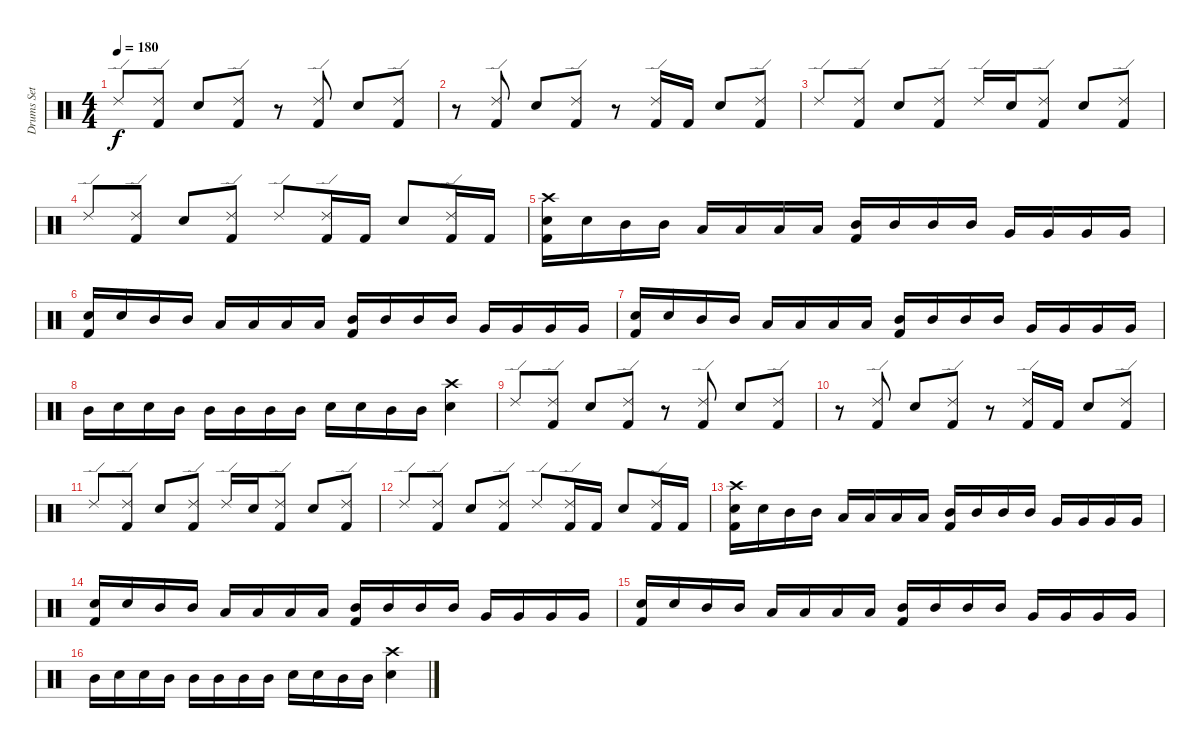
\track ("Drums Set" "Drums Set") {instrument percussion}
\staff {score}
\articulation defaults
\ts (4 4)
\tempo 180
\clef neutral
\ks c "Ride (edge) 2".8{dy f}
("Ride (edge) 2" "Kick (hit) 2").8 "Snare (hit) 2".8 ("Ride (edge) 2" "Kick (hit) 2").8 r.8 ("Ride (edge) 2" "Kick (hit) 2").8 "Snare (hit) 2".8 ("Ride (edge) 2" "Kick (hit) 2").8 |
r.8 ("Ride (edge) 2" "Kick (hit) 2").8 "Snare (hit) 2".8 ("Ride (edge) 2" "Kick (hit) 2").8 r.8 ("Ride (edge) 2" "Kick (hit) 2").16 "Kick (hit) 2".16 "Snare (hit) 2".8 ("Ride (edge) 2" "Kick (hit) 2").8 |
"Ride (edge) 2".8 ("Ride (edge) 2" "Kick (hit) 2").8 "Snare (hit) 2".8 ("Ride (edge) 2" "Kick (hit) 2").8 "Ride (edge) 2".16 "Snare (hit) 2".16 ("Ride (edge) 2" "Kick (hit) 2").8 "Snare (hit) 2".8 ("Ride (edge) 2" "Kick (hit) 2").8 |
"Ride (edge) 2".8 ("Ride (edge) 2" "Kick (hit) 2").8 "Snare (hit) 2".8 ("Ride (edge) 2" "Kick (hit) 2").8 "Ride (edge) 2".8 ("Ride (edge) 2" "Kick (hit) 2").16 "Kick (hit) 2".16 "Snare (hit) 2".8 ("Ride (edge) 2" "Kick (hit) 2").16 "Kick (hit) 2".16 |
("Crash high (hit)" "Snare (hit) 2" "Kick (hit) 2").16 "Snare (hit) 2".16 "Mid Tom (hit)".16 "Mid Tom (hit)".16 "Low Tom (hit)".16 "Low Tom (hit)".16 "Low Tom (hit)".16 "Low Tom (hit)".16 ("Mid Tom (hit)" "Kick (hit) 2").16 "Mid Tom (hit)".16 "Mid Tom (hit)".16 "Mid Tom (hit)".16 "Very Low Tom (hit)".16 "Very Low Tom (hit)".16 "Very Low Tom (hit)".16 "Very Low Tom (hit)".16 |
("Snare (hit) 2" "Kick (hit) 2").16 "Snare (hit) 2".16 "Mid Tom (hit)".16 "Mid Tom (hit)".16 "Low Tom (hit)".16 "Low Tom (hit)".16 "Low Tom (hit)".16 "Low Tom (hit)".16 ("Mid Tom (hit)" "Kick (hit) 2").16 "Mid Tom (hit)".16 "Mid Tom (hit)".16 "Mid Tom (hit)".16 "Very Low Tom (hit)".16 "Very Low Tom (hit)".16 "Very Low Tom (hit)".16 "Very Low Tom (hit)".16 |
("Snare (hit) 2" "Kick (hit) 2").16 "Snare (hit) 2".16 "Mid Tom (hit)".16 "Mid Tom (hit)".16 "Low Tom (hit)".16 "Low Tom (hit)".16 "Low Tom (hit)".16 "Low Tom (hit)".16 ("Mid Tom (hit)" "Kick (hit) 2").16 "Mid Tom (hit)".16 "Mid Tom (hit)".16 "Mid Tom (hit)".16 "Very Low Tom (hit)".16 "Very Low Tom (hit)".16 "Very Low Tom (hit)".16 "Very Low Tom (hit)".16 |
"Mid Tom (hit)".16 "Snare (hit) 2".16 "Snare (hit) 2".16 "Mid Tom (hit)".16 "Mid Tom (hit)".16 "Mid Tom (hit)".16 "Mid Tom (hit)".16 "Mid Tom (hit)".16 "Snare (hit) 2".16 "Snare (hit) 2".16 "Mid Tom (hit)".16 "Mid Tom (hit)".16 ("Crash high (hit)" "Snare (hit) 2").4 |
"Ride (edge) 2".8 ("Ride (edge) 2" "Kick (hit) 2").8 "Snare (hit) 2".8 ("Ride (edge) 2" "Kick (hit) 2").8 r.8 ("Ride (edge) 2" "Kick (hit) 2").8 "Snare (hit) 2".8 ("Ride (edge) 2" "Kick (hit) 2").8 |
r.8 ("Ride (edge) 2" "Kick (hit) 2").8 "Snare (hit) 2".8 ("Ride (edge) 2" "Kick (hit) 2").8 r.8 ("Ride (edge) 2" "Kick (hit) 2").16 "Kick (hit) 2".16 "Snare (hit) 2".8 ("Ride (edge) 2" "Kick (hit) 2").8 |
"Ride (edge) 2".8 ("Ride (edge) 2" "Kick (hit) 2").8 "Snare (hit) 2".8 ("Ride (edge) 2" "Kick (hit) 2").8 "Ride (edge) 2".16 "Snare (hit) 2".16 ("Ride (edge) 2" "Kick (hit) 2").8 "Snare (hit) 2".8 ("Ride (edge) 2" "Kick (hit) 2").8 |
"Ride (edge) 2".8 ("Ride (edge) 2" "Kick (hit) 2").8 "Snare (hit) 2".8 ("Ride (edge) 2" "Kick (hit) 2").8 "Ride (edge) 2".8 ("Ride (edge) 2" "Kick (hit) 2").16 "Kick (hit) 2".16 "Snare (hit) 2".8 ("Ride (edge) 2" "Kick (hit) 2").16 "Kick (hit) 2".16 |
("Crash high (hit)" "Snare (hit) 2" "Kick (hit) 2").16 "Snare (hit) 2".16 "Mid Tom (hit)".16 "Mid Tom (hit)".16 "Low Tom (hit)".16 "Low Tom (hit)".16 "Low Tom (hit)".16 "Low Tom (hit)".16 ("Mid Tom (hit)" "Kick (hit) 2").16 "Mid Tom (hit)".16 "Mid Tom (hit)".16 "Mid Tom (hit)".16 "Very Low Tom (hit)".16 "Very Low Tom (hit)".16 "Very Low Tom (hit)".16 "Very Low Tom (hit)".16 |
("Snare (hit) 2" "Kick (hit) 2").16 "Snare (hit) 2".16 "Mid Tom (hit)".16 "Mid Tom (hit)".16 "Low Tom (hit)".16 "Low Tom (hit)".16 "Low Tom (hit)".16 "Low Tom (hit)".16 ("Mid Tom (hit)" "Kick (hit) 2").16 "Mid Tom (hit)".16 "Mid Tom (hit)".16 "Mid Tom (hit)".16 "Very Low Tom (hit)".16 "Very Low Tom (hit)".16 "Very Low Tom (hit)".16 "Very Low Tom (hit)".16 |
("Snare (hit) 2" "Kick (hit) 2").16 "Snare (hit) 2".16 "Mid Tom (hit)".16 "Mid Tom (hit)".16 "Low Tom (hit)".16 "Low Tom (hit)".16 "Low Tom (hit)".16 "Low Tom (hit)".16 ("Mid Tom (hit)" "Kick (hit) 2").16 "Mid Tom (hit)".16 "Mid Tom (hit)".16 "Mid Tom (hit)".16 "Very Low Tom (hit)".16 "Very Low Tom (hit)".16 "Very Low Tom (hit)".16 "Very Low Tom (hit)".16 |
"Mid Tom (hit)".16 "Snare (hit) 2".16 "Snare (hit) 2".16 "Mid Tom (hit)".16 "Mid Tom (hit)".16 "Mid Tom (hit)".16 "Mid Tom (hit)".16 "Mid Tom (hit)".16 "Snare (hit) 2".16 "Snare (hit) 2".16 "Mid Tom (hit)".16 "Mid Tom (hit)".16 ("Crash high (hit)" "Snare (hit) 2").4
